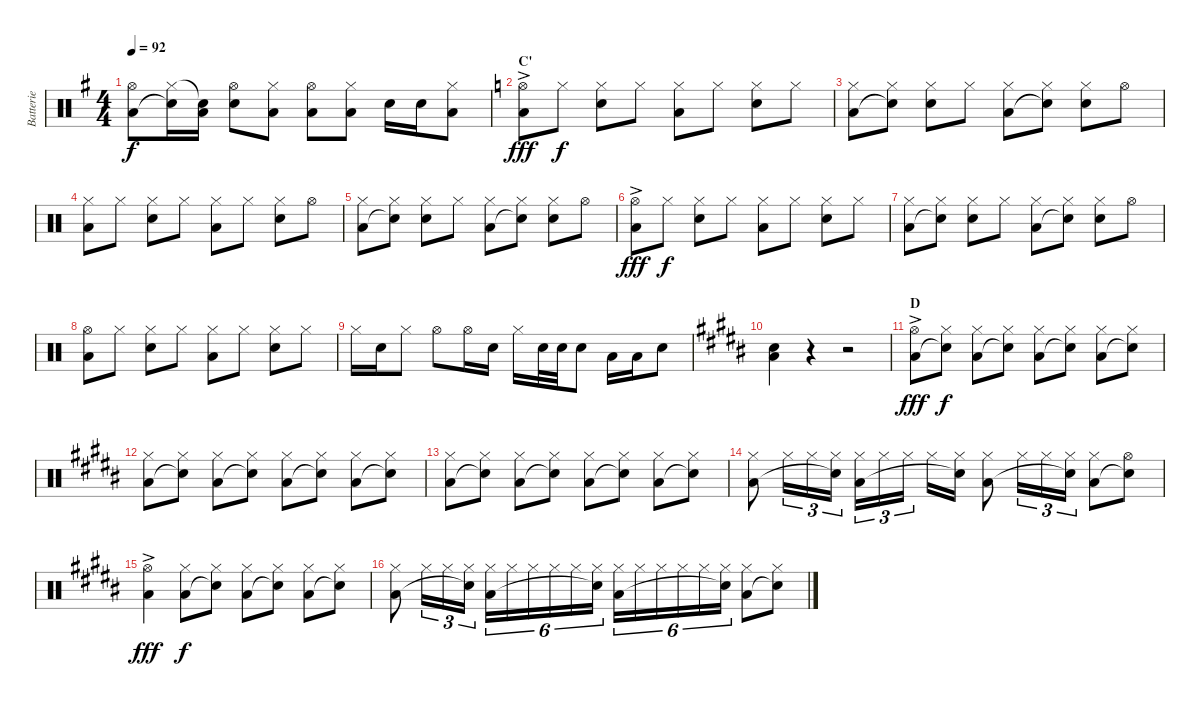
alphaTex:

\track ("Batterie" "Batterie") {instrument percussion}
\staff {score}
\articulation defaults
\ts (4 4)
\tempo 92
\clef neutral
\ks g
("Hi-Hat (open)" "Low Floor Tom (hit)").8{dy f} ("Hi-Hat (closed)" "Snare (hit)"{t}).16 ("Snare (hit)"{t} "Low Floor Tom (hit)").16 ("Hi-Hat (open)" "Electric Snare (hit)").8 ("Hi-Hat (closed)" "Low Floor Tom (hit)").8 ("Hi-Hat (open)" "Low Floor Tom (hit)").8 ("Hi-Hat (closed)" "Low Floor Tom (hit)").8 "Electric Snare (hit)".16 "Electric Snare (hit)".16 ("Hi-Hat (closed)" "Low Floor Tom (hit)").8 |
\section ("" "C'")
\ks c
("Hi-Hat (open)"{ac} "Low Floor Tom (hit)").8{dy fff} "Hi-Hat (closed)".8{dy f} ("Hi-Hat (closed)" "Snare (hit) 2").8 "Hi-Hat (closed)".8 ("Hi-Hat (closed)" "Low Floor Tom (hit)").8 "Hi-Hat (closed)".8 ("Hi-Hat (closed)" "Snare (hit) 2").8 "Hi-Hat (closed)".8 |
("Hi-Hat (closed)" "Low Floor Tom (hit)").8 ("Hi-Hat (closed)" "Snare (hit)"{t}).8 ("Hi-Hat (closed)" "Snare (hit) 2").8 "Hi-Hat (closed)".8 ("Hi-Hat (closed)" "Low Floor Tom (hit)").8 ("Hi-Hat (closed)" "Snare (hit)"{t}).8 ("Hi-Hat (closed)" "Snare (hit) 2").8 "Hi-Hat (open)".8 |
("Hi-Hat (closed)" "Low Floor Tom (hit)").8 "Hi-Hat (closed)".8 ("Hi-Hat (closed)" "Snare (hit) 2").8 "Hi-Hat (closed)".8 ("Hi-Hat (closed)" "Low Floor Tom (hit)").8 "Hi-Hat (closed)".8 ("Hi-Hat (closed)" "Snare (hit) 2").8 "Hi-Hat (open)".8 |
("Hi-Hat (closed)" "Low Floor Tom (hit)").8 ("Hi-Hat (closed)" "Snare (hit)"{t}).8 ("Hi-Hat (closed)" "Snare (hit) 2").8 "Hi-Hat (closed)".8 ("Hi-Hat (closed)" "Low Floor Tom (hit)").8 ("Hi-Hat (closed)" "Snare (hit)"{t}).8 ("Hi-Hat (closed)" "Snare (hit) 2").8 "Hi-Hat (open)".8 |
("Hi-Hat (open)"{ac} "Low Floor Tom (hit)").8{dy fff} "Hi-Hat (closed)".8{dy f} ("Hi-Hat (closed)" "Snare (hit) 2").8 "Hi-Hat (closed)".8 ("Hi-Hat (closed)" "Low Floor Tom (hit)").8 "Hi-Hat (closed)".8 ("Hi-Hat (closed)" "Snare (hit) 2").8 "Hi-Hat (closed)".8 |
("Hi-Hat (closed)" "Low Floor Tom (hit)").8 ("Hi-Hat (closed)" "Snare (hit)"{t}).8 ("Hi-Hat (closed)" "Snare (hit) 2").8 "Hi-Hat (closed)".8 ("Hi-Hat (closed)" "Low Floor Tom (hit)").8 ("Hi-Hat (closed)" "Snare (hit)"{t}).8 ("Hi-Hat (closed)" "Snare (hit) 2").8 "Hi-Hat (open)".8 |
("Hi-Hat (open)" "Low Floor Tom (hit)").8 "Hi-Hat (closed)".8 ("Hi-Hat (closed)" "Snare (hit) 2").8 "Hi-Hat (closed)".8 ("Hi-Hat (closed)" "Low Floor Tom (hit)").8 "Hi-Hat (closed)".8 ("Hi-Hat (closed)" "Snare (hit) 2").8 "Hi-Hat (closed)".8 |
"Hi-Hat (closed)".16 "Electric Snare (hit)".16 "Hi-Hat (closed)".8 "Hi-Hat (open)".8 "Hi-Hat (open)".16 "Electric Snare (hit)".16 "Hi-Hat (closed)".16 "Electric Snare (hit)".32 "Electric Snare (hit)".32 "Electric Snare (hit)".8 "Low Tom (hit)".16 "Low Tom (hit)".16 "Snare (hit) 2".8 |
\ks b
("Snare (hit) 2" "Low Tom (hit)").4 r.4 r.2 |
\section ("" "D")
("Hi-Hat (open)"{ac} "Low Floor Tom (hit)").8{dy fff} ("Hi-Hat (closed)" "Snare (hit)"{t}).8{dy f} ("Hi-Hat (closed)" "Low Floor Tom (hit)").8 ("Hi-Hat (closed)" "Snare (hit)"{t}).8 ("Hi-Hat (closed)" "Low Floor Tom (hit)").8 ("Hi-Hat (closed)" "Snare (hit)"{t}).8 ("Hi-Hat (closed)" "Low Floor Tom (hit)").8 ("Hi-Hat (closed)" "Snare (hit)"{t}).8 |
("Hi-Hat (closed)" "Low Floor Tom (hit)").8 ("Hi-Hat (closed)" "Snare (hit)"{t}).8 ("Hi-Hat (closed)" "Low Floor Tom (hit)").8 ("Hi-Hat (closed)" "Snare (hit)"{t}).8 ("Hi-Hat (closed)" "Low Floor Tom (hit)").8 ("Hi-Hat (closed)" "Snare (hit)"{t}).8 ("Hi-Hat (closed)" "Low Floor Tom (hit)").8 ("Hi-Hat (closed)" "Snare (hit)"{t}).8 |
("Hi-Hat (closed)" "Low Floor Tom (hit)").8 ("Hi-Hat (closed)" "Snare (hit)"{t}).8 ("Hi-Hat (closed)" "Low Floor Tom (hit)").8 ("Hi-Hat (closed)" "Snare (hit)"{t}).8 ("Hi-Hat (closed)" "Low Floor Tom (hit)").8 ("Hi-Hat (closed)" "Snare (hit)"{t}).8 ("Hi-Hat (closed)" "Low Floor Tom (hit)").8 ("Hi-Hat (closed)" "Snare (hit)"{t}).8 |
("Hi-Hat (closed)" "Low Floor Tom (hit)").8 "Hi-Hat (closed)".16{tu (3 2)} "Hi-Hat (closed)".16{tu (3 2)} ("Hi-Hat (closed)" "Snare (hit)"{t}).16{tu (3 2)} ("Hi-Hat (closed)" "Low Floor Tom (hit)").16{tu (3 2)} "Hi-Hat (closed)".16{tu (3 2)} "Hi-Hat (closed)".16{tu (3 2)} "Hi-Hat (closed)".16 ("Hi-Hat (closed)" "Snare (hit)"{t}).16 ("Hi-Hat (closed)" "Low Floor Tom (hit)").8 "Hi-Hat (closed)".16{tu (3 2)} "Hi-Hat (closed)".16{tu (3 2)} ("Hi-Hat (closed)" "Snare (hit)"{t}).16{tu (3 2)} ("Hi-Hat (closed)" "Low Floor Tom (hit)").8 ("Hi-Hat (open)" "Snare (hit)"{t}).8 |
("Hi-Hat (open)"{ac} "Low Floor Tom (hit)").4{dy fff} ("Hi-Hat (closed)" "Low Floor Tom (hit)").8{dy f} ("Hi-Hat (closed)" "Snare (hit)"{t}).8 ("Hi-Hat (closed)" "Low Floor Tom (hit)").8 ("Hi-Hat (closed)" "Snare (hit)"{t}).8 ("Hi-Hat (closed)" "Low Floor Tom (hit)").8 ("Hi-Hat (closed)" "Snare (hit)"{t}).8 |
("Hi-Hat (closed)" "Low Floor Tom (hit)").8 "Hi-Hat (closed)".16{tu (3 2)} "Hi-Hat (closed)".16{tu (3 2)} ("Hi-Hat (closed)" "Snare (hit)"{t}).16{tu (3 2)} ("Hi-Hat (closed)" "Low Floor Tom (hit)").16{tu (6 4)} "Hi-Hat (closed)".16{tu (6 4)} "Hi-Hat (closed)".16{tu (6 4)} "Hi-Hat (closed)".16{tu (6 4)} "Hi-Hat (closed)".16{tu (6 4)} ("Hi-Hat (closed)" "Snare (hit)"{t}).16{tu (6 4)} ("Hi-Hat (closed)" "Low Floor Tom (hit)").16{tu (6 4)} "Hi-Hat (closed)".16{tu (6 4)} "Hi-Hat (closed)".16{tu (6 4)} "Hi-Hat (closed)".16{tu (6 4)} "Hi-Hat (closed)".16{tu (6 4)} ("Hi-Hat (closed)" "Snare (hit)"{t}).16{tu (6 4)} ("Hi-Hat (closed)" "Low Floor Tom (hit)").8 ("Hi-Hat (closed)" "Snare (hit)"{t}).8
